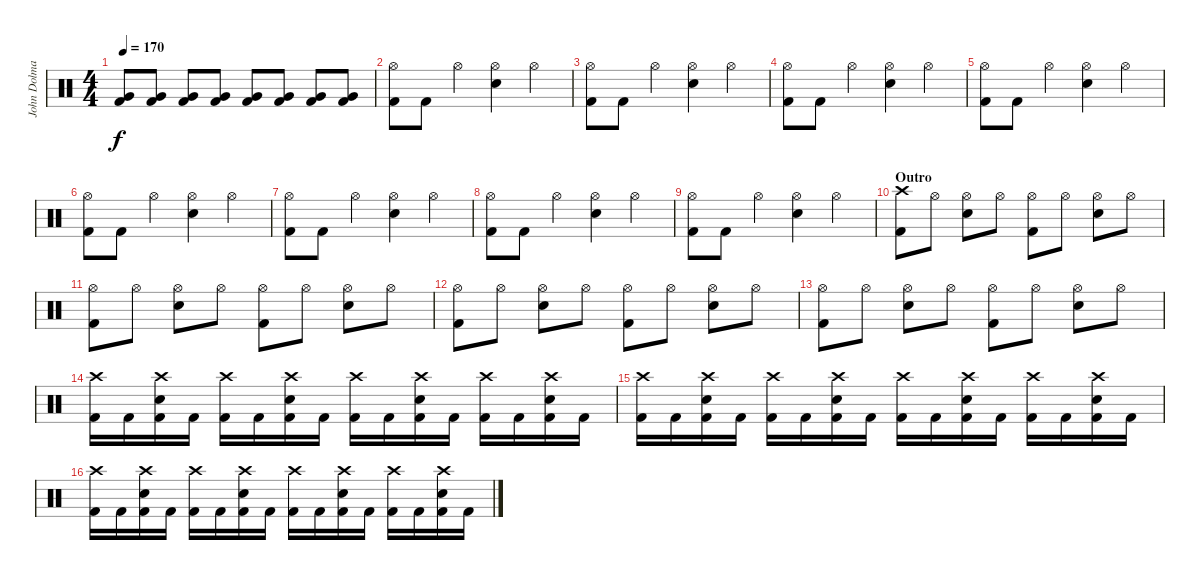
\track ("John Dolmayan" "John Dolma") {instrument percussion}
\staff {score}
\articulation defaults
\ts (4 4)
\tempo 170
\clef neutral
\ks c
("Very Low Tom (hit)" "Kick (hit) 2").8{dy f} ("Very Low Tom (hit)" "Kick (hit) 2").8 ("Very Low Tom (hit)" "Kick (hit) 2").8 ("Very Low Tom (hit)" "Kick (hit) 2").8 ("Very Low Tom (hit)" "Kick (hit) 2").8 ("Very Low Tom (hit)" "Kick (hit) 2").8 ("Very Low Tom (hit)" "Kick (hit) 2").8 ("Very Low Tom (hit)" "Kick (hit) 2").8 |
("Hi-Hat (open)" "Kick (hit) 2").8 "Kick (hit) 2".8 "Hi-Hat (open)".4 ("Hi-Hat (open)" "Electric Snare (hit)").4 "Hi-Hat (open)".4 |
("Hi-Hat (open)" "Kick (hit) 2").8 "Kick (hit) 2".8 "Hi-Hat (open)".4 ("Hi-Hat (open)" "Electric Snare (hit)").4 "Hi-Hat (open)".4 |
("Hi-Hat (open)" "Kick (hit) 2").8 "Kick (hit) 2".8 "Hi-Hat (open)".4 ("Hi-Hat (open)" "Electric Snare (hit)").4 "Hi-Hat (open)".4 |
("Hi-Hat (open)" "Kick (hit) 2").8 "Kick (hit) 2".8 "Hi-Hat (open)".4 ("Hi-Hat (open)" "Electric Snare (hit)").4 "Hi-Hat (open)".4 |
("Hi-Hat (open)" "Kick (hit) 2").8 "Kick (hit) 2".8 "Hi-Hat (open)".4 ("Hi-Hat (open)" "Electric Snare (hit)").4 "Hi-Hat (open)".4 |
("Hi-Hat (open)" "Kick (hit) 2").8 "Kick (hit) 2".8 "Hi-Hat (open)".4 ("Hi-Hat (open)" "Electric Snare (hit)").4 "Hi-Hat (open)".4 |
("Hi-Hat (open)" "Kick (hit) 2").8 "Kick (hit) 2".8 "Hi-Hat (open)".4 ("Hi-Hat (open)" "Electric Snare (hit)").4 "Hi-Hat (open)".4 |
("Hi-Hat (open)" "Kick (hit) 2").8 "Kick (hit) 2".8 "Hi-Hat (open)".4 ("Hi-Hat (open)" "Electric Snare (hit)").4 "Hi-Hat (open)".4 |
\section ("" "Outro")
("Crash high (hit)" "Kick (hit) 2").8 "Hi-Hat (open)".8 ("Hi-Hat (open)" "Electric Snare (hit)").8 "Hi-Hat (open)".8 ("Hi-Hat (open)" "Kick (hit) 2").8 "Hi-Hat (open)".8 ("Hi-Hat (open)" "Electric Snare (hit)").8 "Hi-Hat (open)".8 |
("Hi-Hat (open)" "Kick (hit) 2").8 "Hi-Hat (open)".8 ("Hi-Hat (open)" "Electric Snare (hit)").8 "Hi-Hat (open)".8 ("Hi-Hat (open)" "Kick (hit) 2").8 "Hi-Hat (open)".8 ("Hi-Hat (open)" "Electric Snare (hit)").8 "Hi-Hat (open)".8 |
("Hi-Hat (open)" "Kick (hit) 2").8 "Hi-Hat (open)".8 ("Hi-Hat (open)" "Electric Snare (hit)").8 "Hi-Hat (open)".8 ("Hi-Hat (open)" "Kick (hit) 2").8 "Hi-Hat (open)".8 ("Hi-Hat (open)" "Electric Snare (hit)").8 "Hi-Hat (open)".8 |
("Hi-Hat (open)" "Kick (hit) 2").8 "Hi-Hat (open)".8 ("Hi-Hat (open)" "Electric Snare (hit)").8 "Hi-Hat (open)".8 ("Hi-Hat (open)" "Kick (hit) 2").8 "Hi-Hat (open)".8 ("Hi-Hat (open)" "Electric Snare (hit)").8 "Hi-Hat (open)".8 |
("Crash high (hit)" "Kick (hit) 2").16 "Kick (hit) 2".16 ("Crash high (hit)" "Electric Snare (hit)" "Kick (hit) 2").16 "Kick (hit) 2".16 ("Crash high (hit)" "Kick (hit) 2").16 "Kick (hit) 2".16 ("Crash high (hit)" "Electric Snare (hit)" "Kick (hit) 2").16 "Kick (hit) 2".16 ("Crash high (hit)" "Kick (hit) 2").16 "Kick (hit) 2".16 ("Crash high (hit)" "Electric Snare (hit)" "Kick (hit) 2").16 "Kick (hit) 2".16 ("Crash high (hit)" "Kick (hit) 2").16 "Kick (hit) 2".16 ("Crash high (hit)" "Electric Snare (hit)" "Kick (hit) 2").16 "Kick (hit) 2".16 |
("Crash high (hit)" "Kick (hit) 2").16 "Kick (hit) 2".16 ("Crash high (hit)" "Electric Snare (hit)" "Kick (hit) 2").16 "Kick (hit) 2".16 ("Crash high (hit)" "Kick (hit) 2").16 "Kick (hit) 2".16 ("Crash high (hit)" "Electric Snare (hit)" "Kick (hit) 2").16 "Kick (hit) 2".16 ("Crash high (hit)" "Kick (hit) 2").16 "Kick (hit) 2".16 ("Crash high (hit)" "Electric Snare (hit)" "Kick (hit) 2").16 "Kick (hit) 2".16 ("Crash high (hit)" "Kick (hit) 2").16 "Kick (hit) 2".16 ("Crash high (hit)" "Electric Snare (hit)" "Kick (hit) 2").16 "Kick (hit) 2".16 |
("Crash high (hit)" "Kick (hit) 2").16 "Kick (hit) 2".16 ("Crash high (hit)" "Electric Snare (hit)" "Kick (hit) 2").16 "Kick (hit) 2".16 ("Crash high (hit)" "Kick (hit) 2").16 "Kick (hit) 2".16 ("Crash high (hit)" "Electric Snare (hit)" "Kick (hit) 2").16 "Kick (hit) 2".16 ("Crash high (hit)" "Kick (hit) 2").16 "Kick (hit) 2".16 ("Crash high (hit)" "Electric Snare (hit)" "Kick (hit) 2").16 "Kick (hit) 2".16 ("Crash high (hit)" "Kick (hit) 2").16 "Kick (hit) 2".16 ("Crash high (hit)" "Electric Snare (hit)" "Kick (hit) 2").16 "Kick (hit) 2".16
